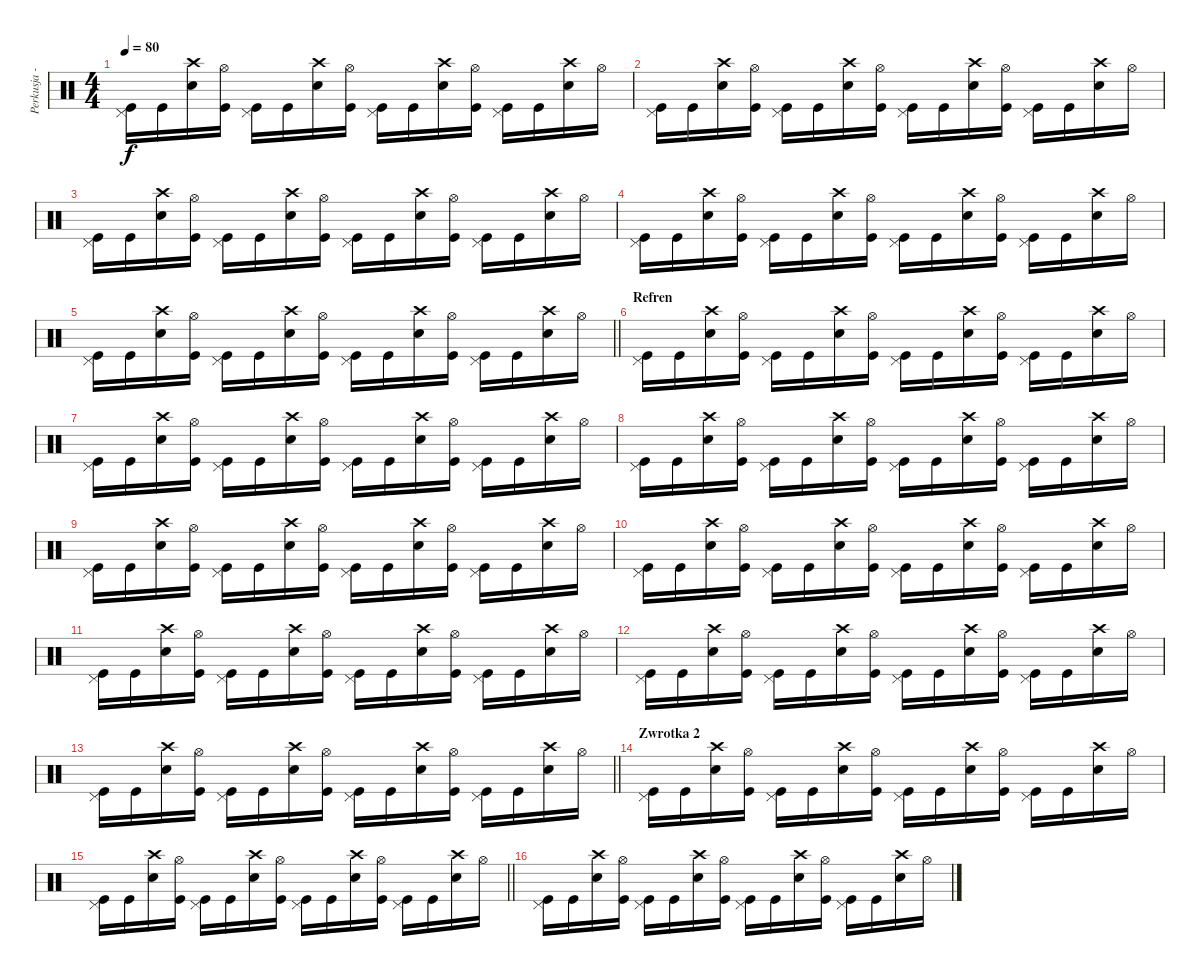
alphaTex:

\track ("Perkusja - Krzyzyk" "Perkusja -") {instrument percussion}
\staff {score}
\articulation defaults
\ts (4 4)
\tempo 80
\clef neutral
\ks c
("Pedal Hi-Hat (hit)" "Kick (hit)").16{dy f} "Kick (hit)".16 ("Crash high (hit)" "Snare (hit) 2").16 ("Hi-Hat (open)" "Kick (hit)").16 ("Pedal Hi-Hat (hit)" "Kick (hit)").16 "Kick (hit)".16 ("Crash high (hit)" "Snare (hit) 2").16 ("Hi-Hat (open)" "Kick (hit)").16 ("Pedal Hi-Hat (hit)" "Kick (hit)").16 "Kick (hit)".16 ("Crash high (hit)" "Snare (hit) 2").16 ("Hi-Hat (open)" "Kick (hit)").16 ("Pedal Hi-Hat (hit)" "Kick (hit)").16 "Kick (hit)".16 ("Crash high (hit)" "Snare (hit) 2").16 "Hi-Hat (open)".16 |
("Pedal Hi-Hat (hit)" "Kick (hit)").16 "Kick (hit)".16 ("Crash high (hit)" "Snare (hit) 2").16 ("Hi-Hat (open)" "Kick (hit)").16 ("Pedal Hi-Hat (hit)" "Kick (hit)").16 "Kick (hit)".16 ("Crash high (hit)" "Snare (hit) 2").16 ("Hi-Hat (open)" "Kick (hit)").16 ("Pedal Hi-Hat (hit)" "Kick (hit)").16 "Kick (hit)".16 ("Crash high (hit)" "Snare (hit) 2").16 ("Hi-Hat (open)" "Kick (hit)").16 ("Pedal Hi-Hat (hit)" "Kick (hit)").16 "Kick (hit)".16 ("Crash high (hit)" "Snare (hit) 2").16 "Hi-Hat (open)".16 |
("Pedal Hi-Hat (hit)" "Kick (hit)").16 "Kick (hit)".16 ("Crash high (hit)" "Snare (hit) 2").16 ("Hi-Hat (open)" "Kick (hit)").16 ("Pedal Hi-Hat (hit)" "Kick (hit)").16 "Kick (hit)".16 ("Crash high (hit)" "Snare (hit) 2").16 ("Hi-Hat (open)" "Kick (hit)").16 ("Pedal Hi-Hat (hit)" "Kick (hit)").16 "Kick (hit)".16 ("Crash high (hit)" "Snare (hit) 2").16 ("Hi-Hat (open)" "Kick (hit)").16 ("Pedal Hi-Hat (hit)" "Kick (hit)").16 "Kick (hit)".16 ("Crash high (hit)" "Snare (hit) 2").16 "Hi-Hat (open)".16 |
("Pedal Hi-Hat (hit)" "Kick (hit)").16 "Kick (hit)".16 ("Crash high (hit)" "Snare (hit) 2").16 ("Hi-Hat (open)" "Kick (hit)").16 ("Pedal Hi-Hat (hit)" "Kick (hit)").16 "Kick (hit)".16 ("Crash high (hit)" "Snare (hit) 2").16 ("Hi-Hat (open)" "Kick (hit)").16 ("Pedal Hi-Hat (hit)" "Kick (hit)").16 "Kick (hit)".16 ("Crash high (hit)" "Snare (hit) 2").16 ("Hi-Hat (open)" "Kick (hit)").16 ("Pedal Hi-Hat (hit)" "Kick (hit)").16 "Kick (hit)".16 ("Crash high (hit)" "Snare (hit) 2").16 "Hi-Hat (open)".16 |
\barLineRight lightlight
("Pedal Hi-Hat (hit)" "Kick (hit)").16 "Kick (hit)".16 ("Crash high (hit)" "Snare (hit) 2").16 ("Hi-Hat (open)" "Kick (hit)").16 ("Pedal Hi-Hat (hit)" "Kick (hit)").16 "Kick (hit)".16 ("Crash high (hit)" "Snare (hit) 2").16 ("Hi-Hat (open)" "Kick (hit)").16 ("Pedal Hi-Hat (hit)" "Kick (hit)").16 "Kick (hit)".16 ("Crash high (hit)" "Snare (hit) 2").16 ("Hi-Hat (open)" "Kick (hit)").16 ("Pedal Hi-Hat (hit)" "Kick (hit)").16 "Kick (hit)".16 ("Crash high (hit)" "Snare (hit) 2").16 "Hi-Hat (open)".16 |
\section ("" "Refren")
("Pedal Hi-Hat (hit)" "Kick (hit)").16 "Kick (hit)".16 ("Crash high (hit)" "Snare (hit) 2").16 ("Hi-Hat (open)" "Kick (hit)").16 ("Pedal Hi-Hat (hit)" "Kick (hit)").16 "Kick (hit)".16 ("Crash high (hit)" "Snare (hit) 2").16 ("Hi-Hat (open)" "Kick (hit)").16 ("Pedal Hi-Hat (hit)" "Kick (hit)").16 "Kick (hit)".16 ("Crash high (hit)" "Snare (hit) 2").16 ("Hi-Hat (open)" "Kick (hit)").16 ("Pedal Hi-Hat (hit)" "Kick (hit)").16 "Kick (hit)".16 ("Crash high (hit)" "Snare (hit) 2").16 "Hi-Hat (open)".16 |
("Pedal Hi-Hat (hit)" "Kick (hit)").16 "Kick (hit)".16 ("Crash high (hit)" "Snare (hit) 2").16 ("Hi-Hat (open)" "Kick (hit)").16 ("Pedal Hi-Hat (hit)" "Kick (hit)").16 "Kick (hit)".16 ("Crash high (hit)" "Snare (hit) 2").16 ("Hi-Hat (open)" "Kick (hit)").16 ("Pedal Hi-Hat (hit)" "Kick (hit)").16 "Kick (hit)".16 ("Crash high (hit)" "Snare (hit) 2").16 ("Hi-Hat (open)" "Kick (hit)").16 ("Pedal Hi-Hat (hit)" "Kick (hit)").16 "Kick (hit)".16 ("Crash high (hit)" "Snare (hit) 2").16 "Hi-Hat (open)".16 |
("Pedal Hi-Hat (hit)" "Kick (hit)").16 "Kick (hit)".16 ("Crash high (hit)" "Snare (hit) 2").16 ("Hi-Hat (open)" "Kick (hit)").16 ("Pedal Hi-Hat (hit)" "Kick (hit)").16 "Kick (hit)".16 ("Crash high (hit)" "Snare (hit) 2").16 ("Hi-Hat (open)" "Kick (hit)").16 ("Pedal Hi-Hat (hit)" "Kick (hit)").16 "Kick (hit)".16 ("Crash high (hit)" "Snare (hit) 2").16 ("Hi-Hat (open)" "Kick (hit)").16 ("Pedal Hi-Hat (hit)" "Kick (hit)").16 "Kick (hit)".16 ("Crash high (hit)" "Snare (hit) 2").16 "Hi-Hat (open)".16 |
("Pedal Hi-Hat (hit)" "Kick (hit)").16 "Kick (hit)".16 ("Crash high (hit)" "Snare (hit) 2").16 ("Hi-Hat (open)" "Kick (hit)").16 ("Pedal Hi-Hat (hit)" "Kick (hit)").16 "Kick (hit)".16 ("Crash high (hit)" "Snare (hit) 2").16 ("Hi-Hat (open)" "Kick (hit)").16 ("Pedal Hi-Hat (hit)" "Kick (hit)").16 "Kick (hit)".16 ("Crash high (hit)" "Snare (hit) 2").16 ("Hi-Hat (open)" "Kick (hit)").16 ("Pedal Hi-Hat (hit)" "Kick (hit)").16 "Kick (hit)".16 ("Crash high (hit)" "Snare (hit) 2").16 "Hi-Hat (open)".16 |
("Pedal Hi-Hat (hit)" "Kick (hit)").16 "Kick (hit)".16 ("Crash high (hit)" "Snare (hit) 2").16 ("Hi-Hat (open)" "Kick (hit)").16 ("Pedal Hi-Hat (hit)" "Kick (hit)").16 "Kick (hit)".16 ("Crash high (hit)" "Snare (hit) 2").16 ("Hi-Hat (open)" "Kick (hit)").16 ("Pedal Hi-Hat (hit)" "Kick (hit)").16 "Kick (hit)".16 ("Crash high (hit)" "Snare (hit) 2").16 ("Hi-Hat (open)" "Kick (hit)").16 ("Pedal Hi-Hat (hit)" "Kick (hit)").16 "Kick (hit)".16 ("Crash high (hit)" "Snare (hit) 2").16 "Hi-Hat (open)".16 |
("Pedal Hi-Hat (hit)" "Kick (hit)").16 "Kick (hit)".16 ("Crash high (hit)" "Snare (hit) 2").16 ("Hi-Hat (open)" "Kick (hit)").16 ("Pedal Hi-Hat (hit)" "Kick (hit)").16 "Kick (hit)".16 ("Crash high (hit)" "Snare (hit) 2").16 ("Hi-Hat (open)" "Kick (hit)").16 ("Pedal Hi-Hat (hit)" "Kick (hit)").16 "Kick (hit)".16 ("Crash high (hit)" "Snare (hit) 2").16 ("Hi-Hat (open)" "Kick (hit)").16 ("Pedal Hi-Hat (hit)" "Kick (hit)").16 "Kick (hit)".16 ("Crash high (hit)" "Snare (hit) 2").16 "Hi-Hat (open)".16 |
("Pedal Hi-Hat (hit)" "Kick (hit)").16 "Kick (hit)".16 ("Crash high (hit)" "Snare (hit) 2").16 ("Hi-Hat (open)" "Kick (hit)").16 ("Pedal Hi-Hat (hit)" "Kick (hit)").16 "Kick (hit)".16 ("Crash high (hit)" "Snare (hit) 2").16 ("Hi-Hat (open)" "Kick (hit)").16 ("Pedal Hi-Hat (hit)" "Kick (hit)").16 "Kick (hit)".16 ("Crash high (hit)" "Snare (hit) 2").16 ("Hi-Hat (open)" "Kick (hit)").16 ("Pedal Hi-Hat (hit)" "Kick (hit)").16 "Kick (hit)".16 ("Crash high (hit)" "Snare (hit) 2").16 "Hi-Hat (open)".16 |
\barLineRight lightlight
("Pedal Hi-Hat (hit)" "Kick (hit)").16 "Kick (hit)".16 ("Crash high (hit)" "Snare (hit) 2").16 ("Hi-Hat (open)" "Kick (hit)").16 ("Pedal Hi-Hat (hit)" "Kick (hit)").16 "Kick (hit)".16 ("Crash high (hit)" "Snare (hit) 2").16 ("Hi-Hat (open)" "Kick (hit)").16 ("Pedal Hi-Hat (hit)" "Kick (hit)").16 "Kick (hit)".16 ("Crash high (hit)" "Snare (hit) 2").16 ("Hi-Hat (open)" "Kick (hit)").16 ("Pedal Hi-Hat (hit)" "Kick (hit)").16 "Kick (hit)".16 ("Crash high (hit)" "Snare (hit) 2").16 "Hi-Hat (open)".16 |
\section ("" "Zwrotka 2")
("Pedal Hi-Hat (hit)" "Kick (hit)").16 "Kick (hit)".16 ("Crash high (hit)" "Snare (hit) 2").16 ("Hi-Hat (open)" "Kick (hit)").16 ("Pedal Hi-Hat (hit)" "Kick (hit)").16 "Kick (hit)".16 ("Crash high (hit)" "Snare (hit) 2").16 ("Hi-Hat (open)" "Kick (hit)").16 ("Pedal Hi-Hat (hit)" "Kick (hit)").16 "Kick (hit)".16 ("Crash high (hit)" "Snare (hit) 2").16 ("Hi-Hat (open)" "Kick (hit)").16 ("Pedal Hi-Hat (hit)" "Kick (hit)").16 "Kick (hit)".16 ("Crash high (hit)" "Snare (hit) 2").16 "Hi-Hat (open)".16 |
\barLineRight lightlight
("Pedal Hi-Hat (hit)" "Kick (hit)").16 "Kick (hit)".16 ("Crash high (hit)" "Snare (hit) 2").16 ("Hi-Hat (open)" "Kick (hit)").16 ("Pedal Hi-Hat (hit)" "Kick (hit)").16 "Kick (hit)".16 ("Crash high (hit)" "Snare (hit) 2").16 ("Hi-Hat (open)" "Kick (hit)").16 ("Pedal Hi-Hat (hit)" "Kick (hit)").16 "Kick (hit)".16 ("Crash high (hit)" "Snare (hit) 2").16 ("Hi-Hat (open)" "Kick (hit)").16 ("Pedal Hi-Hat (hit)" "Kick (hit)").16 "Kick (hit)".16 ("Crash high (hit)" "Snare (hit) 2").16 "Hi-Hat (open)".16 |
\section ("" "")
("Pedal Hi-Hat (hit)" "Kick (hit)").16 "Kick (hit)".16 ("Crash high (hit)" "Snare (hit) 2").16 ("Hi-Hat (open)" "Kick (hit)").16 ("Pedal Hi-Hat (hit)" "Kick (hit)").16 "Kick (hit)".16 ("Crash high (hit)" "Snare (hit) 2").16 ("Hi-Hat (open)" "Kick (hit)").16 ("Pedal Hi-Hat (hit)" "Kick (hit)").16 "Kick (hit)".16 ("Crash high (hit)" "Snare (hit) 2").16 ("Hi-Hat (open)" "Kick (hit)").16 ("Pedal Hi-Hat (hit)" "Kick (hit)").16 "Kick (hit)".16 ("Crash high (hit)" "Snare (hit) 2").16 "Hi-Hat (open)".16
